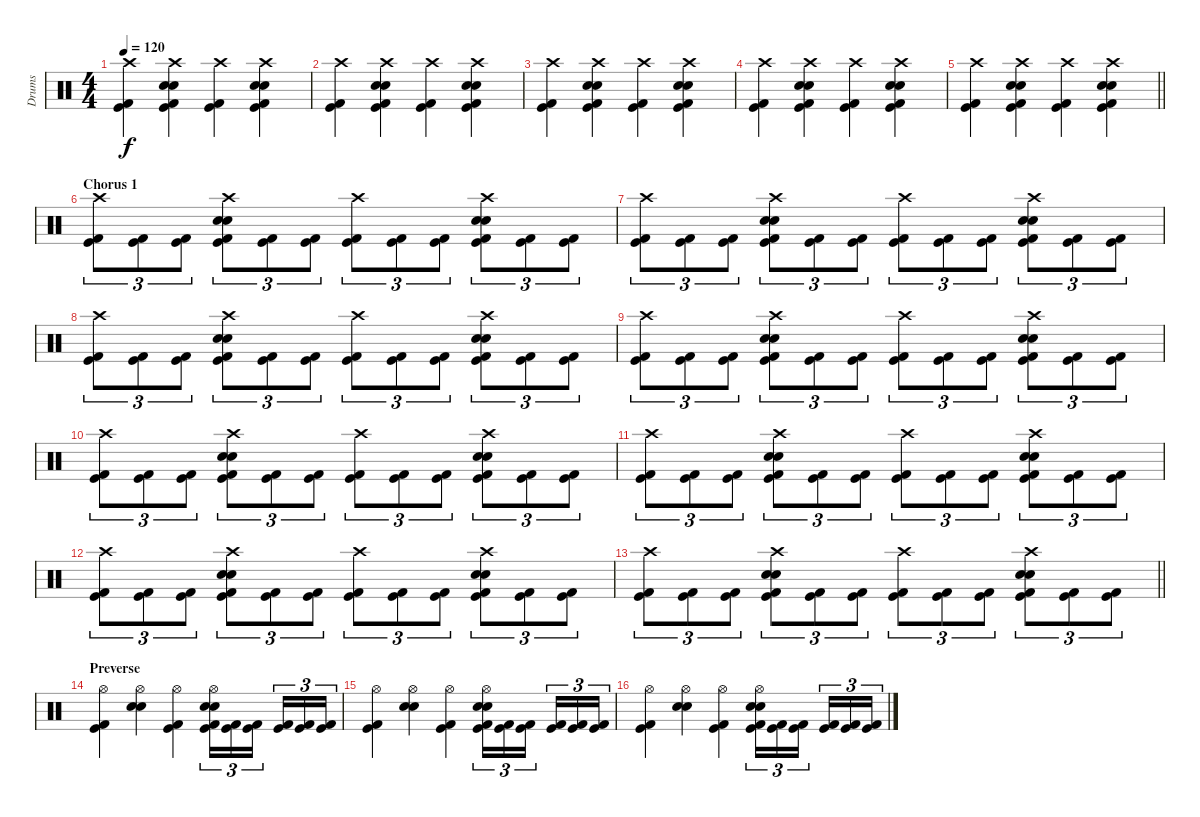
\track ("Drums" "Drums") {instrument percussion}
\staff {score}
\articulation defaults
\ts (4 4)
\tempo 120
\clef neutral
\ks c
("Crash high (hit)" "Kick (hit)" "Kick (hit) 2").4{dy f} ("Crash high (hit)" "Electric Snare (hit)" "Electric Snare (hit)" "Kick (hit)" "Kick (hit) 2").4 ("Crash high (hit)" "Kick (hit)" "Kick (hit) 2").4 ("Crash high (hit)" "Electric Snare (hit)" "Electric Snare (hit)" "Kick (hit)" "Kick (hit) 2").4 |
("Crash high (hit)" "Kick (hit)" "Kick (hit) 2").4 ("Crash high (hit)" "Electric Snare (hit)" "Electric Snare (hit)" "Kick (hit)" "Kick (hit) 2").4 ("Crash high (hit)" "Kick (hit)" "Kick (hit) 2").4 ("Crash high (hit)" "Electric Snare (hit)" "Electric Snare (hit)" "Kick (hit)" "Kick (hit) 2").4 |
("Crash high (hit)" "Kick (hit)" "Kick (hit) 2").4 ("Crash high (hit)" "Electric Snare (hit)" "Electric Snare (hit)" "Kick (hit)" "Kick (hit) 2").4 ("Crash high (hit)" "Kick (hit)" "Kick (hit) 2").4 ("Crash high (hit)" "Electric Snare (hit)" "Electric Snare (hit)" "Kick (hit)" "Kick (hit) 2").4 |
("Crash high (hit)" "Kick (hit)" "Kick (hit) 2").4 ("Crash high (hit)" "Electric Snare (hit)" "Electric Snare (hit)" "Kick (hit)" "Kick (hit) 2").4 ("Crash high (hit)" "Kick (hit)" "Kick (hit) 2").4 ("Crash high (hit)" "Electric Snare (hit)" "Electric Snare (hit)" "Kick (hit)" "Kick (hit) 2").4 |
\barLineRight lightlight
("Crash high (hit)" "Kick (hit)" "Kick (hit) 2").4 ("Crash high (hit)" "Electric Snare (hit)" "Electric Snare (hit)" "Kick (hit)" "Kick (hit) 2").4 ("Crash high (hit)" "Kick (hit)" "Kick (hit) 2").4 ("Crash high (hit)" "Electric Snare (hit)" "Electric Snare (hit)" "Kick (hit)" "Kick (hit) 2").4 |
\section ("" "Chorus 1")
("Crash high (hit)" "Kick (hit) 2" "Kick (hit)").8{tu (3 2)} ("Kick (hit) 2" "Kick (hit)").8{tu (3 2)} ("Kick (hit) 2" "Kick (hit)").8{tu (3 2)} ("Crash high (hit)" "Electric Snare (hit)" "Electric Snare (hit)" "Kick (hit) 2" "Kick (hit)").8{tu (3 2)} ("Kick (hit) 2" "Kick (hit)").8{tu (3 2)} ("Kick (hit) 2" "Kick (hit)").8{tu (3 2)} ("Crash high (hit)" "Kick (hit) 2" "Kick (hit)").8{tu (3 2)} ("Kick (hit) 2" "Kick (hit)").8{tu (3 2)} ("Kick (hit) 2" "Kick (hit)").8{tu (3 2)} ("Crash high (hit)" "Electric Snare (hit)" "Electric Snare (hit)" "Kick (hit) 2" "Kick (hit)").8{tu (3 2)} ("Kick (hit) 2" "Kick (hit)").8{tu (3 2)} ("Kick (hit) 2" "Kick (hit)").8{tu (3 2)} |
("Crash high (hit)" "Kick (hit) 2" "Kick (hit)").8{tu (3 2)} ("Kick (hit) 2" "Kick (hit)").8{tu (3 2)} ("Kick (hit) 2" "Kick (hit)").8{tu (3 2)} ("Crash high (hit)" "Electric Snare (hit)" "Electric Snare (hit)" "Kick (hit) 2" "Kick (hit)").8{tu (3 2)} ("Kick (hit) 2" "Kick (hit)").8{tu (3 2)} ("Kick (hit) 2" "Kick (hit)").8{tu (3 2)} ("Crash high (hit)" "Kick (hit) 2" "Kick (hit)").8{tu (3 2)} ("Kick (hit) 2" "Kick (hit)").8{tu (3 2)} ("Kick (hit) 2" "Kick (hit)").8{tu (3 2)} ("Crash high (hit)" "Electric Snare (hit)" "Electric Snare (hit)" "Kick (hit) 2" "Kick (hit)").8{tu (3 2)} ("Kick (hit) 2" "Kick (hit)").8{tu (3 2)} ("Kick (hit) 2" "Kick (hit)").8{tu (3 2)} |
("Crash high (hit)" "Kick (hit) 2" "Kick (hit)").8{tu (3 2)} ("Kick (hit) 2" "Kick (hit)").8{tu (3 2)} ("Kick (hit) 2" "Kick (hit)").8{tu (3 2)} ("Crash high (hit)" "Electric Snare (hit)" "Electric Snare (hit)" "Kick (hit) 2" "Kick (hit)").8{tu (3 2)} ("Kick (hit) 2" "Kick (hit)").8{tu (3 2)} ("Kick (hit) 2" "Kick (hit)").8{tu (3 2)} ("Crash high (hit)" "Kick (hit) 2" "Kick (hit)").8{tu (3 2)} ("Kick (hit) 2" "Kick (hit)").8{tu (3 2)} ("Kick (hit) 2" "Kick (hit)").8{tu (3 2)} ("Crash high (hit)" "Electric Snare (hit)" "Electric Snare (hit)" "Kick (hit) 2" "Kick (hit)").8{tu (3 2)} ("Kick (hit) 2" "Kick (hit)").8{tu (3 2)} ("Kick (hit) 2" "Kick (hit)").8{tu (3 2)} |
("Crash high (hit)" "Kick (hit) 2" "Kick (hit)").8{tu (3 2)} ("Kick (hit) 2" "Kick (hit)").8{tu (3 2)} ("Kick (hit) 2" "Kick (hit)").8{tu (3 2)} ("Crash high (hit)" "Electric Snare (hit)" "Electric Snare (hit)" "Kick (hit) 2" "Kick (hit)").8{tu (3 2)} ("Kick (hit) 2" "Kick (hit)").8{tu (3 2)} ("Kick (hit) 2" "Kick (hit)").8{tu (3 2)} ("Crash high (hit)" "Kick (hit) 2" "Kick (hit)").8{tu (3 2)} ("Kick (hit) 2" "Kick (hit)").8{tu (3 2)} ("Kick (hit) 2" "Kick (hit)").8{tu (3 2)} ("Crash high (hit)" "Electric Snare (hit)" "Electric Snare (hit)" "Kick (hit) 2" "Kick (hit)").8{tu (3 2)} ("Kick (hit) 2" "Kick (hit)").8{tu (3 2)} ("Kick (hit) 2" "Kick (hit)").8{tu (3 2)} |
("Crash high (hit)" "Kick (hit) 2" "Kick (hit)").8{tu (3 2)} ("Kick (hit) 2" "Kick (hit)").8{tu (3 2)} ("Kick (hit) 2" "Kick (hit)").8{tu (3 2)} ("Crash high (hit)" "Electric Snare (hit)" "Electric Snare (hit)" "Kick (hit) 2" "Kick (hit)").8{tu (3 2)} ("Kick (hit) 2" "Kick (hit)").8{tu (3 2)} ("Kick (hit) 2" "Kick (hit)").8{tu (3 2)} ("Crash high (hit)" "Kick (hit) 2" "Kick (hit)").8{tu (3 2)} ("Kick (hit) 2" "Kick (hit)").8{tu (3 2)} ("Kick (hit) 2" "Kick (hit)").8{tu (3 2)} ("Crash high (hit)" "Electric Snare (hit)" "Electric Snare (hit)" "Kick (hit) 2" "Kick (hit)").8{tu (3 2)} ("Kick (hit) 2" "Kick (hit)").8{tu (3 2)} ("Kick (hit) 2" "Kick (hit)").8{tu (3 2)} |
("Crash high (hit)" "Kick (hit) 2" "Kick (hit)").8{tu (3 2)} ("Kick (hit) 2" "Kick (hit)").8{tu (3 2)} ("Kick (hit) 2" "Kick (hit)").8{tu (3 2)} ("Crash high (hit)" "Electric Snare (hit)" "Electric Snare (hit)" "Kick (hit) 2" "Kick (hit)").8{tu (3 2)} ("Kick (hit) 2" "Kick (hit)").8{tu (3 2)} ("Kick (hit) 2" "Kick (hit)").8{tu (3 2)} ("Crash high (hit)" "Kick (hit) 2" "Kick (hit)").8{tu (3 2)} ("Kick (hit) 2" "Kick (hit)").8{tu (3 2)} ("Kick (hit) 2" "Kick (hit)").8{tu (3 2)} ("Crash high (hit)" "Electric Snare (hit)" "Electric Snare (hit)" "Kick (hit) 2" "Kick (hit)").8{tu (3 2)} ("Kick (hit) 2" "Kick (hit)").8{tu (3 2)} ("Kick (hit) 2" "Kick (hit)").8{tu (3 2)} |
("Crash high (hit)" "Kick (hit) 2" "Kick (hit)").8{tu (3 2)} ("Kick (hit) 2" "Kick (hit)").8{tu (3 2)} ("Kick (hit) 2" "Kick (hit)").8{tu (3 2)} ("Crash high (hit)" "Electric Snare (hit)" "Electric Snare (hit)" "Kick (hit) 2" "Kick (hit)").8{tu (3 2)} ("Kick (hit) 2" "Kick (hit)").8{tu (3 2)} ("Kick (hit) 2" "Kick (hit)").8{tu (3 2)} ("Crash high (hit)" "Kick (hit) 2" "Kick (hit)").8{tu (3 2)} ("Kick (hit) 2" "Kick (hit)").8{tu (3 2)} ("Kick (hit) 2" "Kick (hit)").8{tu (3 2)} ("Crash high (hit)" "Electric Snare (hit)" "Electric Snare (hit)" "Kick (hit) 2" "Kick (hit)").8{tu (3 2)} ("Kick (hit) 2" "Kick (hit)").8{tu (3 2)} ("Kick (hit) 2" "Kick (hit)").8{tu (3 2)} |
\barLineRight lightlight
("Crash high (hit)" "Kick (hit) 2" "Kick (hit)").8{tu (3 2)} ("Kick (hit) 2" "Kick (hit)").8{tu (3 2)} ("Kick (hit) 2" "Kick (hit)").8{tu (3 2)} ("Crash high (hit)" "Electric Snare (hit)" "Electric Snare (hit)" "Kick (hit) 2" "Kick (hit)").8{tu (3 2)} ("Kick (hit) 2" "Kick (hit)").8{tu (3 2)} ("Kick (hit) 2" "Kick (hit)").8{tu (3 2)} ("Crash high (hit)" "Kick (hit) 2" "Kick (hit)").8{tu (3 2)} ("Kick (hit) 2" "Kick (hit)").8{tu (3 2)} ("Kick (hit) 2" "Kick (hit)").8{tu (3 2)} ("Crash high (hit)" "Electric Snare (hit)" "Electric Snare (hit)" "Kick (hit) 2" "Kick (hit)").8{tu (3 2)} ("Kick (hit) 2" "Kick (hit)").8{tu (3 2)} ("Kick (hit) 2" "Kick (hit)").8{tu (3 2)} |
\section ("" "Preverse")
("Hi-Hat (open)" "Kick (hit) 2" "Kick (hit)").4 ("Hi-Hat (open)" "Electric Snare (hit)" "Electric Snare (hit)").4 ("Hi-Hat (open)" "Kick (hit) 2" "Kick (hit)").4 ("Hi-Hat (open)" "Electric Snare (hit)" "Electric Snare (hit)" "Kick (hit)" "Kick (hit) 2").16{tu (3 2)} ("Kick (hit)" "Kick (hit) 2").16{tu (3 2)} ("Kick (hit)" "Kick (hit) 2").16{tu (3 2) beam splitsecondary} ("Kick (hit)" "Kick (hit) 2").16{tu (3 2)} ("Kick (hit)" "Kick (hit) 2").16{tu (3 2)} ("Kick (hit)" "Kick (hit) 2").16{tu (3 2)} |
("Hi-Hat (open)" "Kick (hit) 2" "Kick (hit)").4 ("Hi-Hat (open)" "Electric Snare (hit)" "Electric Snare (hit)").4 ("Hi-Hat (open)" "Kick (hit) 2" "Kick (hit)").4 ("Hi-Hat (open)" "Electric Snare (hit)" "Electric Snare (hit)" "Kick (hit)" "Kick (hit) 2").16{tu (3 2)} ("Kick (hit)" "Kick (hit) 2").16{tu (3 2)} ("Kick (hit)" "Kick (hit) 2").16{tu (3 2) beam splitsecondary} ("Kick (hit)" "Kick (hit) 2").16{tu (3 2)} ("Kick (hit)" "Kick (hit) 2").16{tu (3 2)} ("Kick (hit)" "Kick (hit) 2").16{tu (3 2)} |
("Hi-Hat (open)" "Kick (hit) 2" "Kick (hit)").4 ("Hi-Hat (open)" "Electric Snare (hit)" "Electric Snare (hit)").4 ("Hi-Hat (open)" "Kick (hit) 2" "Kick (hit)").4 ("Hi-Hat (open)" "Electric Snare (hit)" "Electric Snare (hit)" "Kick (hit)" "Kick (hit) 2").16{tu (3 2)} ("Kick (hit)" "Kick (hit) 2").16{tu (3 2)} ("Kick (hit)" "Kick (hit) 2").16{tu (3 2) beam splitsecondary} ("Kick (hit)" "Kick (hit) 2").16{tu (3 2)} ("Kick (hit)" "Kick (hit) 2").16{tu (3 2)} ("Kick (hit)" "Kick (hit) 2").16{tu (3 2)}
